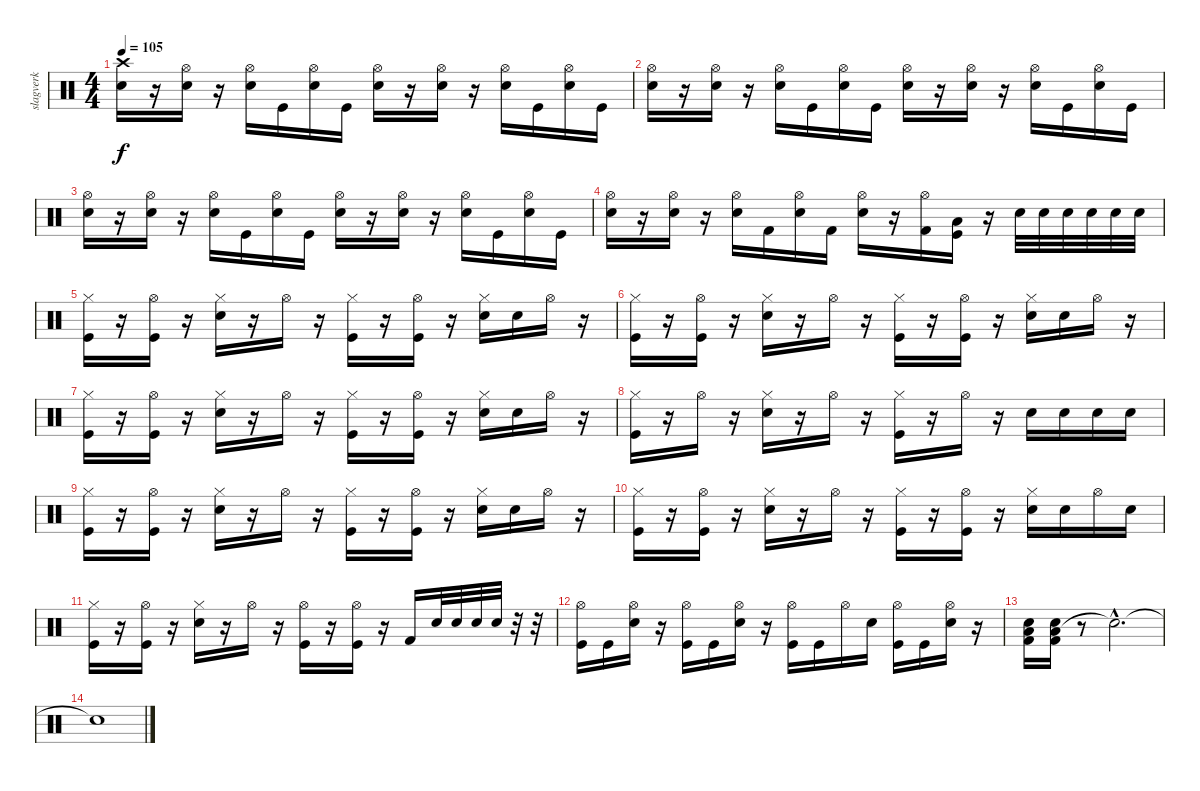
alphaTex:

\track ("slagverk" "slagverk") {instrument percussion}
\staff {score}
\articulation defaults
\ts (4 4)
\tempo 105
\clef neutral
\ks c
("Crash high (hit)" "Snare (hit) 2").16{dy f} r.16 ("Hi-Hat (open)" "Snare (hit) 2").16 r.16 ("Hi-Hat (open)" "Snare (hit) 2").16 "Kick (hit)".16 ("Hi-Hat (open)" "Snare (hit) 2").16 "Kick (hit)".16 ("Hi-Hat (open)" "Snare (hit) 2").16 r.16 ("Hi-Hat (open)" "Snare (hit) 2").16 r.16 ("Hi-Hat (open)" "Snare (hit) 2").16 "Kick (hit)".16 ("Hi-Hat (open)" "Snare (hit) 2").16 "Kick (hit)".16 |
("Hi-Hat (open)" "Snare (hit) 2").16 r.16 ("Hi-Hat (open)" "Snare (hit) 2").16 r.16 ("Hi-Hat (open)" "Snare (hit) 2").16 "Kick (hit)".16 ("Hi-Hat (open)" "Snare (hit) 2").16 "Kick (hit)".16 ("Hi-Hat (open)" "Snare (hit) 2").16 r.16 ("Hi-Hat (open)" "Snare (hit) 2").16 r.16 ("Hi-Hat (open)" "Snare (hit) 2").16 "Kick (hit)".16 ("Hi-Hat (open)" "Snare (hit) 2").16 "Kick (hit)".16 |
("Hi-Hat (open)" "Snare (hit) 2").16 r.16 ("Hi-Hat (open)" "Snare (hit) 2").16 r.16 ("Hi-Hat (open)" "Snare (hit) 2").16 "Kick (hit)".16 ("Hi-Hat (open)" "Snare (hit) 2").16 "Kick (hit)".16 ("Hi-Hat (open)" "Snare (hit) 2").16 r.16 ("Hi-Hat (open)" "Snare (hit) 2").16 r.16 ("Hi-Hat (open)" "Snare (hit) 2").16 "Kick (hit)".16 ("Hi-Hat (open)" "Snare (hit) 2").16 "Kick (hit)".16 |
("Hi-Hat (open)" "Snare (hit) 2").16 r.16 ("Hi-Hat (open)" "Snare (hit) 2").16 r.16 ("Hi-Hat (open)" "Snare (hit) 2").16 "Kick (hit) 2".16 ("Hi-Hat (open)" "Snare (hit) 2").16 "Kick (hit) 2".16 ("Hi-Hat (open)" "Snare (hit) 2").16 r.16 ("Hi-Hat (open)" "Kick (hit) 2").16 ("Low Tom (hit)" "Kick (hit)").16 r.16 "Snare (hit) 2".32 "Snare (hit) 2".32 "Snare (hit) 2".32 "Snare (hit) 2".32 "Snare (hit) 2".32 "Snare (hit) 2".32 |
("Hi-Hat (closed)" "Kick (hit)").16 r.16 ("Hi-Hat (open)" "Kick (hit)").16 r.16 ("Hi-Hat (closed)" "Snare (hit) 2").16 r.16 "Hi-Hat (open)".16 r.16 ("Hi-Hat (closed)" "Kick (hit)").16 r.16 ("Hi-Hat (open)" "Kick (hit)").16 r.16 ("Hi-Hat (closed)" "Snare (hit) 2").16 "Snare (hit) 2".16 "Hi-Hat (open)".16 r.16 |
("Hi-Hat (closed)" "Kick (hit)").16 r.16 ("Hi-Hat (open)" "Kick (hit)").16 r.16 ("Hi-Hat (closed)" "Snare (hit) 2").16 r.16 "Hi-Hat (open)".16 r.16 ("Hi-Hat (closed)" "Kick (hit)").16 r.16 ("Hi-Hat (open)" "Kick (hit)").16 r.16 ("Hi-Hat (closed)" "Snare (hit) 2").16 "Snare (hit) 2".16 "Hi-Hat (open)".16 r.16 |
("Hi-Hat (closed)" "Kick (hit)").16 r.16 ("Hi-Hat (open)" "Kick (hit)").16 r.16 ("Hi-Hat (closed)" "Snare (hit) 2").16 r.16 "Hi-Hat (open)".16 r.16 ("Hi-Hat (closed)" "Kick (hit)").16 r.16 ("Hi-Hat (open)" "Kick (hit)").16 r.16 ("Hi-Hat (closed)" "Snare (hit) 2").16 "Snare (hit) 2".16 "Hi-Hat (open)".16 r.16 |
("Hi-Hat (closed)" "Kick (hit)").16 r.16 "Hi-Hat (open)".16 r.16 ("Hi-Hat (closed)" "Snare (hit) 2").16 r.16 "Hi-Hat (open)".16 r.16 ("Hi-Hat (closed)" "Kick (hit)").16 r.16 "Hi-Hat (open)".16 r.16 "Snare (hit) 2".16 "Snare (hit) 2".16 "Snare (hit) 2".16 "Snare (hit) 2".16 |
("Hi-Hat (closed)" "Kick (hit)").16 r.16 ("Hi-Hat (open)" "Kick (hit)").16 r.16 ("Hi-Hat (closed)" "Snare (hit) 2").16 r.16 "Hi-Hat (open)".16 r.16 ("Hi-Hat (closed)" "Kick (hit)").16 r.16 ("Hi-Hat (open)" "Kick (hit)").16 r.16 ("Hi-Hat (closed)" "Snare (hit) 2").16 "Snare (hit) 2".16 "Hi-Hat (open)".16 r.16 |
("Hi-Hat (closed)" "Kick (hit)").16 r.16 ("Hi-Hat (open)" "Kick (hit)").16 r.16 ("Hi-Hat (closed)" "Snare (hit) 2").16 r.16 "Hi-Hat (open)".16 r.16 ("Hi-Hat (closed)" "Kick (hit)").16 r.16 ("Hi-Hat (open)" "Kick (hit)").16 r.16 ("Hi-Hat (closed)" "Snare (hit) 2").16 "Snare (hit) 2".16 "Hi-Hat (open)".16 "Snare (hit) 2".16 |
("Hi-Hat (closed)" "Kick (hit)").16 r.16 ("Hi-Hat (open)" "Kick (hit)").16 r.16 ("Hi-Hat (closed)" "Snare (hit) 2").16 r.16 "Hi-Hat (open)".16 r.16 ("Hi-Hat (open)" "Kick (hit)").16 r.16 ("Hi-Hat (open)" "Kick (hit)").16 r.16 "Kick (hit) 2".16 "Snare (hit) 2".32 "Snare (hit) 2".32 "Snare (hit) 2".32 "Snare (hit) 2".32 r.32 r.32 |
("Hi-Hat (open)" "Kick (hit)").16 "Kick (hit)".16 ("Hi-Hat (open)" "Snare (hit) 2").16 r.16 ("Hi-Hat (open)" "Kick (hit)").16 "Kick (hit)".16 ("Hi-Hat (open)" "Snare (hit) 2").16 r.16 ("Hi-Hat (open)" "Kick (hit)").16 "Kick (hit)".16 "Hi-Hat (open)".16 "Snare (hit) 2".16 ("Hi-Hat (open)" "Kick (hit)").16 "Kick (hit)".16 ("Hi-Hat (open)" "Snare (hit) 2").16 r.16 |
("Low Floor Tom (hit)" "Snare (hit) 2" "Kick (hit) 2").16 ("Low Floor Tom (hit)" "Snare (hit) 2" "Kick (hit) 2").16 r.8 "Snare (hit)"{hac t}.2{d} |
"Snare (hit)"{t}.1
